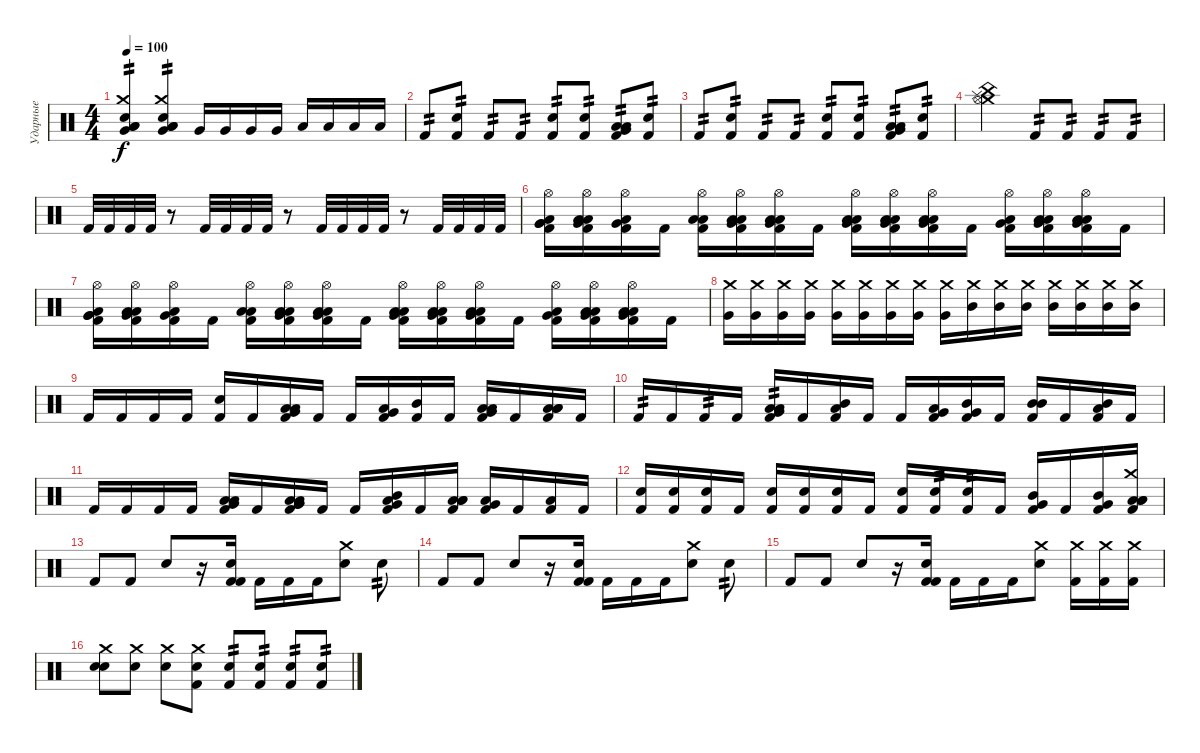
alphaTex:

\track ("Ударные" "Ударные") {instrument percussion}
\staff {score}
\articulation defaults
\ts (4 4)
\tempo 100
\clef neutral
\ks c
("Low Floor Tom (hit)" "Snare (hit) 2" "Crash medium (hit)" "Low Floor Tom (hit)" "Very Low Tom (hit)").4{tp 2 dy f} ("Low Floor Tom (hit)" "Snare (hit) 2" "Crash medium (hit)" "Low Floor Tom (hit)" "Very Low Tom (hit)").4{tp 2} "Very Low Tom (hit)".16 "Very Low Tom (hit)".16 "Very Low Tom (hit)".16 "Very Low Tom (hit)".16 "Low Tom (hit)".16 "Low Tom (hit)".16 "Low Tom (hit)".16 "Low Tom (hit)".16 |
"Kick (hit) 2".8{tp 2} ("Kick (hit) 2" "Snare (hit) 2").8{tp 2} "Kick (hit) 2".8{tp 2} "Kick (hit) 2".8{tp 2} ("Kick (hit) 2" "Snare (hit) 2").8{tp 2} ("Kick (hit) 2" "Snare (hit) 2").8{tp 2} ("Kick (hit) 2" "Low Floor Tom (hit)" "Very Low Tom (hit)" "Low Tom (hit)").8{tp 2} ("Kick (hit) 2" "Snare (hit) 2").8{tp 2} |
"Kick (hit) 2".8{tp 2} ("Kick (hit) 2" "Snare (hit) 2").8{tp 2} "Kick (hit) 2".8{tp 2} "Kick (hit) 2".8{tp 2} ("Kick (hit) 2" "Snare (hit) 2").8{tp 2} ("Kick (hit) 2" "Snare (hit) 2").8{tp 2} ("Kick (hit) 2" "Low Floor Tom (hit)" "Very Low Tom (hit)" "Low Tom (hit)").8{tp 2} ("Kick (hit) 2" "Snare (hit) 2").8{tp 2} |
("Crash medium (hit)" "Splash (hit)" "China (hit)" "Hi-Hat (open)").2 "Kick (hit) 2".8{tp 2} "Kick (hit) 2".8{tp 2} "Kick (hit) 2".8{tp 2} "Kick (hit) 2".8{tp 2} |
"Kick (hit) 2".32 "Kick (hit) 2".32 "Kick (hit) 2".32 "Kick (hit) 2".32 r.8 "Kick (hit) 2".32 "Kick (hit) 2".32 "Kick (hit) 2".32 "Kick (hit) 2".32 r.8 "Kick (hit) 2".32 "Kick (hit) 2".32 "Kick (hit) 2".32 "Kick (hit) 2".32 r.8 "Kick (hit) 2".32 "Kick (hit) 2".32 "Kick (hit) 2".32 "Kick (hit) 2".32 |
("Kick (hit) 2" "Low Floor Tom (hit)" "Very Low Tom (hit)" "Very Low Tom (hit)" "Hi-Hat (open)").16 ("Kick (hit) 2" "Low Floor Tom (hit)" "Very Low Tom (hit)" "Low Tom (hit)" "Hi-Hat (open)").16 ("Kick (hit) 2" "Low Floor Tom (hit)" "Very Low Tom (hit)" "Hi-Hat (open)").16 "Kick (hit) 2".16 ("Kick (hit) 2" "Low Floor Tom (hit)" "Low Tom (hit)" "Hi-Hat (open)").16 ("Kick (hit) 2" "Low Floor Tom (hit)" "Very Low Tom (hit)" "Low Tom (hit)" "Hi-Hat (open)").16 ("Kick (hit) 2" "Low Floor Tom (hit)" "Very Low Tom (hit)" "Low Tom (hit)" "Hi-Hat (open)").16 "Kick (hit) 2".16 ("Kick (hit) 2" "Low Floor Tom (hit)" "Very Low Tom (hit)" "Low Tom (hit)" "Hi-Hat (open)").16 ("Kick (hit) 2" "Low Floor Tom (hit)" "Very Low Tom (hit)" "Low Tom (hit)" "Hi-Hat (open)").16 ("Kick (hit) 2" "Low Floor Tom (hit)" "Very Low Tom (hit)" "Low Tom (hit)" "Hi-Hat (open)").16 "Kick (hit) 2".16 ("Kick (hit) 2" "Very Low Tom (hit)" "Low Tom (hit)" "Hi-Hat (open)").16 ("Kick (hit) 2" "Low Floor Tom (hit)" "Very Low Tom (hit)" "Low Tom (hit)" "Hi-Hat (open)").16 ("Kick (hit) 2" "Low Floor Tom (hit)" "Very Low Tom (hit)" "Low Tom (hit)" "Hi-Hat (open)").16 "Kick (hit) 2".16 |
("Kick (hit) 2" "Low Floor Tom (hit)" "Very Low Tom (hit)" "Very Low Tom (hit)" "Hi-Hat (open)").16 ("Kick (hit) 2" "Low Floor Tom (hit)" "Very Low Tom (hit)" "Low Tom (hit)" "Hi-Hat (open)").16 ("Kick (hit) 2" "Low Floor Tom (hit)" "Very Low Tom (hit)" "Hi-Hat (open)").16 "Kick (hit) 2".16 ("Kick (hit) 2" "Low Floor Tom (hit)" "Low Tom (hit)" "Hi-Hat (open)").16 ("Kick (hit) 2" "Low Floor Tom (hit)" "Very Low Tom (hit)" "Low Tom (hit)" "Hi-Hat (open)").16 ("Kick (hit) 2" "Low Floor Tom (hit)" "Very Low Tom (hit)" "Low Tom (hit)" "Hi-Hat (open)").16 "Kick (hit) 2".16 ("Kick (hit) 2" "Low Floor Tom (hit)" "Very Low Tom (hit)" "Low Tom (hit)" "Hi-Hat (open)").16 ("Kick (hit) 2" "Low Floor Tom (hit)" "Very Low Tom (hit)" "Low Tom (hit)" "Hi-Hat (open)").16 ("Kick (hit) 2" "Low Floor Tom (hit)" "Very Low Tom (hit)" "Low Tom (hit)" "Hi-Hat (open)").16 "Kick (hit) 2".16 ("Kick (hit) 2" "Very Low Tom (hit)" "Low Tom (hit)" "Hi-Hat (open)").16 ("Kick (hit) 2" "Low Floor Tom (hit)" "Very Low Tom (hit)" "Low Tom (hit)" "Hi-Hat (open)").16 ("Kick (hit) 2" "Low Floor Tom (hit)" "Very Low Tom (hit)" "Low Tom (hit)" "Hi-Hat (open)").16 "Kick (hit) 2".16 |
("Very Low Tom (hit)" "Crash medium (hit)").16 ("Very Low Tom (hit)" "Crash medium (hit)").16 ("Very Low Tom (hit)" "Crash medium (hit)").16 ("Very Low Tom (hit)" "Crash medium (hit)").16 ("Very Low Tom (hit)" "Crash medium (hit)").16 ("Very Low Tom (hit)" "Crash medium (hit)").16 ("Very Low Tom (hit)" "Crash medium (hit)").16 ("Very Low Tom (hit)" "Crash medium (hit)").16 ("Very Low Tom (hit)" "Crash medium (hit)").16 ("Mid Tom (hit)" "Crash medium (hit)").16 ("Mid Tom (hit)" "Crash medium (hit)").16 ("Mid Tom (hit)" "Crash medium (hit)").16 ("Mid Tom (hit)" "Crash medium (hit)").16 ("Mid Tom (hit)" "Crash medium (hit)").16 ("Mid Tom (hit)" "Crash medium (hit)").16 ("Mid Tom (hit)" "Crash medium (hit)").16 |
"Kick (hit) 2".16 "Kick (hit) 2".16 "Kick (hit) 2".16 "Kick (hit) 2".16 ("Kick (hit) 2" "Snare (hit) 2").16 "Kick (hit) 2".16 ("Kick (hit) 2" "Low Floor Tom (hit)" "Very Low Tom (hit)" "Low Tom (hit)").16 "Kick (hit) 2".16 "Kick (hit) 2".16 ("Kick (hit) 2" "Very Low Tom (hit)" "Low Tom (hit)").16 ("Kick (hit) 2" "Mid Tom (hit)").16 "Kick (hit) 2".16 ("Kick (hit) 2" "Low Floor Tom (hit)" "Very Low Tom (hit)" "Low Tom (hit)").16 "Kick (hit) 2".16 ("Kick (hit) 2" "Low Floor Tom (hit)" "Low Tom (hit)" "Low Tom (hit)").16 "Kick (hit) 2".16 |
"Kick (hit) 2".16{tp 2} "Kick (hit) 2".16 "Kick (hit) 2".16{tp 2} "Kick (hit) 2".16 ("Kick (hit) 2" "Low Floor Tom (hit)" "Very Low Tom (hit)" "Low Tom (hit)").16{tp 2} "Kick (hit) 2".16 ("Kick (hit) 2" "Low Tom (hit)" "Mid Tom (hit)").16 "Kick (hit) 2".16 "Kick (hit) 2".16 ("Kick (hit) 2" "Very Low Tom (hit)" "Low Tom (hit)").16 ("Kick (hit) 2" "Very Low Tom (hit)" "Mid Tom (hit)").16 "Kick (hit) 2".16 ("Kick (hit) 2" "Mid Tom (hit)" "Mid Tom (hit)").16 "Kick (hit) 2".16 ("Kick (hit) 2" "Low Tom (hit)" "Mid Tom (hit)").16 "Kick (hit) 2".16 |
"Kick (hit) 2".16 "Kick (hit) 2".16 "Kick (hit) 2".16 "Kick (hit) 2".16 ("Kick (hit) 2" "Low Tom (hit)" "Very Low Tom (hit)" "Low Floor Tom (hit)").16 "Kick (hit) 2".16 ("Kick (hit) 2" "Low Tom (hit)" "Very Low Tom (hit)" "Very Low Tom (hit)" "Low Floor Tom (hit)").16 "Kick (hit) 2".16 "Kick (hit) 2".16 ("Kick (hit) 2" "Mid Tom (hit)" "Very Low Tom (hit)" "Low Floor Tom (hit)").16 "Kick (hit) 2".16 ("Kick (hit) 2" "Low Tom (hit)" "Low Floor Tom (hit)" "Low Tom (hit)").16 ("Kick (hit) 2" "Very Low Tom (hit)" "Low Tom (hit)").16 "Kick (hit) 2".16 ("Kick (hit) 2" "Low Floor Tom (hit)").16 "Kick (hit) 2".16 |
("Kick (hit) 2" "Snare (hit) 2").16 ("Kick (hit) 2" "Snare (hit) 2").16 ("Kick (hit) 2" "Snare (hit) 2").16 "Kick (hit) 2".16 ("Kick (hit) 2" "Snare (hit) 2").16 ("Kick (hit) 2" "Snare (hit) 2").16 ("Kick (hit) 2" "Snare (hit) 2").16 "Kick (hit) 2".16 ("Kick (hit) 2" "Snare (hit) 2").16 ("Kick (hit) 2" "Snare (hit) 2").16{tp 2} ("Kick (hit) 2" "Snare (hit) 2").16{tp 2} "Kick (hit) 2".16 ("Kick (hit) 2" "Very Low Tom (hit)" "Mid Tom (hit)").16 "Kick (hit) 2".16 ("Kick (hit) 2" "Very Low Tom (hit)" "Mid Tom (hit)").16 ("Kick (hit) 2" "Low Floor Tom (hit)" "Low Tom (hit)" "Low Tom (hit)" "Crash medium (hit)").16 |
"Kick (hit) 2".8 "Kick (hit) 2".8 "Snare (hit) 2".8 r.16 ("Kick (hit) 2" "Kick (hit) 2" "Snare (hit) 2").16 "Kick (hit) 2".16 "Kick (hit) 2".16 "Kick (hit) 2".16 ("Snare (hit) 2" "Crash medium (hit)").8 "Snare (hit) 2".8{tp 2} |
"Kick (hit) 2".8 "Kick (hit) 2".8 "Snare (hit) 2".8 r.16 ("Kick (hit) 2" "Kick (hit) 2" "Snare (hit) 2").16 "Kick (hit) 2".16 "Kick (hit) 2".16 "Kick (hit) 2".16 ("Snare (hit) 2" "Crash medium (hit)").8 "Snare (hit) 2".8{tp 2} |
"Kick (hit) 2".8 "Kick (hit) 2".8 "Snare (hit) 2".8 r.16 ("Kick (hit) 2" "Kick (hit) 2" "Snare (hit) 2").16 "Kick (hit) 2".16 "Kick (hit) 2".16 "Kick (hit) 2".16 ("Snare (hit) 2" "Crash medium (hit)").8 ("Crash medium (hit)" "Kick (hit) 2").16 ("Crash medium (hit)" "Kick (hit) 2").16 ("Crash medium (hit)" "Kick (hit) 2").16 |
("Snare (hit) 2" "Snare (hit) 2" "Crash medium (hit)").8 ("Snare (hit) 2" "Crash medium (hit)").8 ("Snare (hit) 2" "Crash medium (hit)").8 ("Snare (hit) 2" "Crash medium (hit)" "Kick (hit) 2").8 ("Snare (hit) 2" "Kick (hit) 2").8{tp 2} ("Snare (hit) 2" "Kick (hit) 2").8{tp 2} ("Snare (hit) 2" "Kick (hit) 2").8{tp 2} ("Snare (hit) 2" "Kick (hit) 2").8{tp 2}
